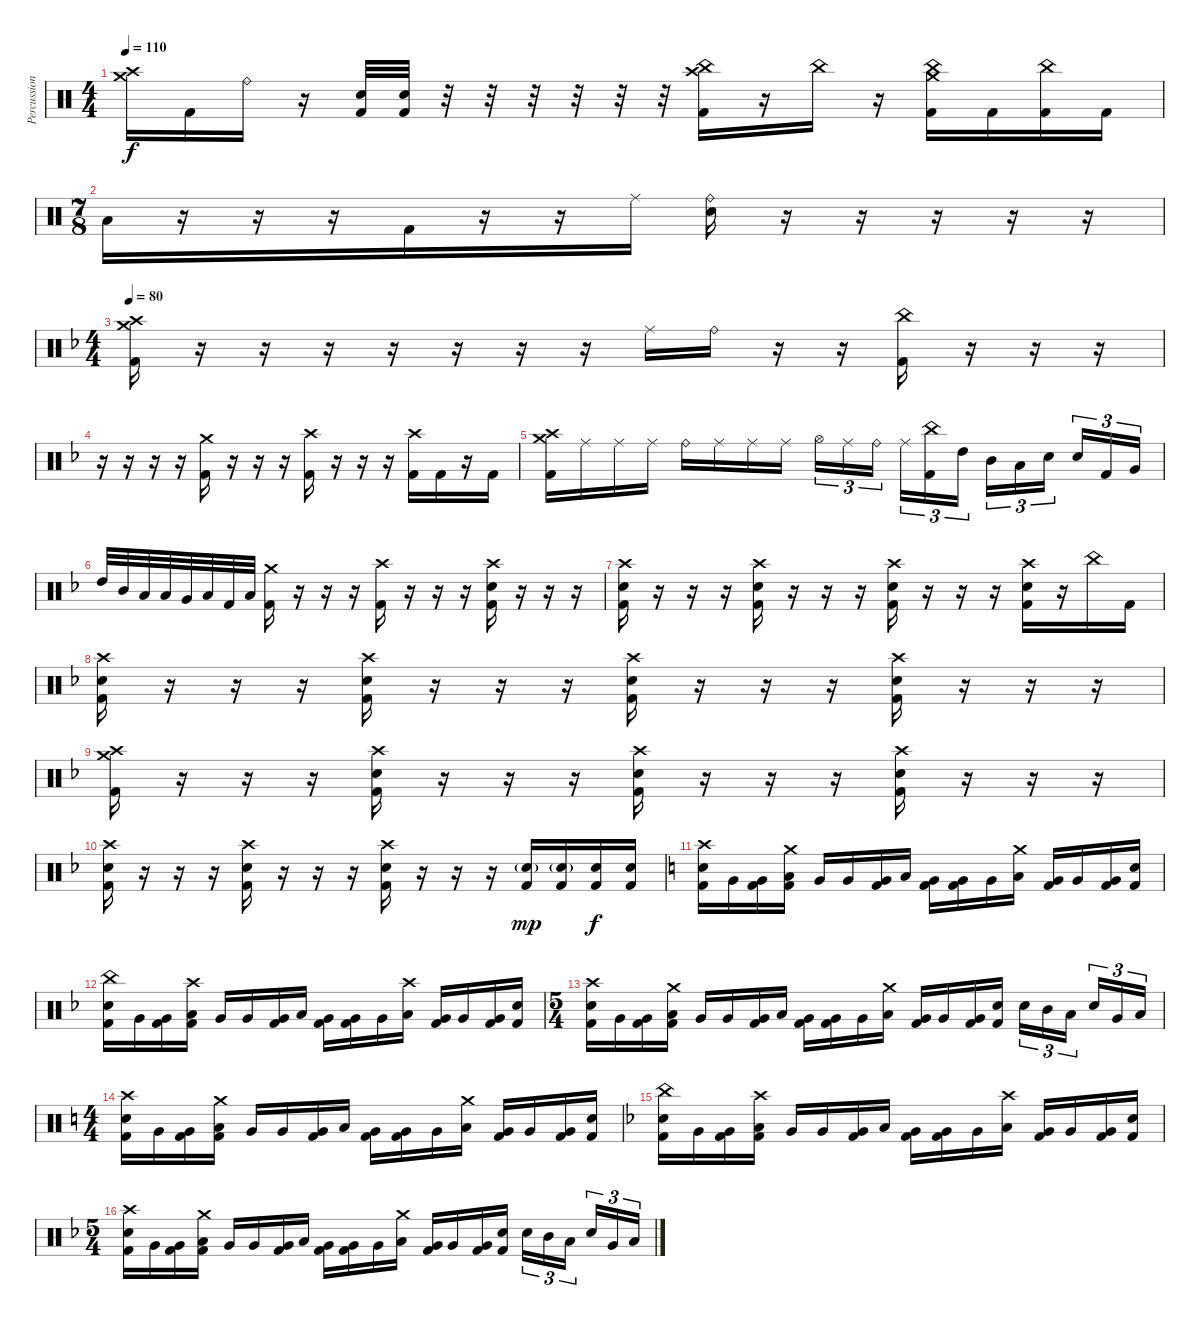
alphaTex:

\track ("Percussion" "Percussion") {instrument percussion}
\staff {score}
\articulation defaults
\ts (4 4)
\tempo 110
\clef neutral
\ks c
("Crash medium (hit)" "Crash high (hit)").16{dy f} "Kick (hit) 2".16 "Ride (bell)".16 r.16 ("Kick (hit) 2" "Electric Snare (hit)").32 ("Kick (hit) 2" "Electric Snare (hit)").32 r.32 r.32 r.32 r.32 r.32 r.32 ("Kick (hit) 2" "China (hit)" "Crash high (hit)").16 r.16 "China (hit)".16 r.16 ("Kick (hit) 2" "China (hit)" "Crash medium (hit)").16 "Kick (hit) 2".16 ("Kick (hit) 2" "China (hit)").16 "Kick (hit) 2".16 |
\ts (7 8)
"Low Tom (hit)".16 r.16 r.16 r.16 "Kick (hit) 2".16 r.16 r.16 "Ride (middle)".16 ("Electric Snare (hit)" "Ride (bell)").16 r.16 r.16 r.16 r.16 r.16 |
\ts (4 4)
\tempo 80
\ks dminor
("Kick (hit) 2" "Crash medium (hit)" "Crash high (hit)").16 r.16 r.16 r.16 r.16 r.16 r.16 r.16 "Ride (middle)".16 "Ride (bell)".16 r.16 r.16 ("Kick (hit) 2" "China (hit)").16 r.16 r.16 r.16 |
r.16 r.16 r.16 r.16 ("Kick (hit) 2" "Crash medium (hit)").16 r.16 r.16 r.16 ("Kick (hit) 2" "Crash high (hit)").16 r.16 r.16 r.16 ("Kick (hit) 2" "Crash high (hit)").16 "Kick (hit) 2".16 r.16 "Kick (hit) 2".16 |
("Kick (hit) 2" "Crash medium (hit)" "Crash high (hit)").16 "Ride (middle)".16 "Ride (middle)".16 "Ride (middle)".16 "Ride (bell)".16 "Ride (middle)".16 "Ride (middle)".16 "Ride (middle)".16 "Hi-Hat (open)".16{tu (3 2)} "Ride (middle)".16{tu (3 2)} "Ride (bell)".16{tu (3 2)} "Ride (middle)".16{tu (3 2)} ("Kick (hit) 2" "China (hit)").16{tu (3 2)} "High Tom (hit)".16{tu (3 2)} "Mid Tom (hit)".16{tu (3 2)} "Low Tom (hit)".16{tu (3 2)} "Electric Snare (hit)".16{tu (3 2)} "Electric Snare (hit)".16{tu (3 2)} "Kick (hit) 2".16{tu (3 2)} "Very Low Tom (hit)".16{tu (3 2)} |
"High Tom (hit)".32 "Mid Tom (hit)".32 "Low Tom (hit)".32 "Low Floor Tom (hit)".32 "Very Low Tom (hit)".32 "Low Floor Tom (hit)".32 "Kick (hit) 2".32 "Low Floor Tom (hit)".32 ("Kick (hit) 2" "Crash medium (hit)").16 r.16 r.16 r.16 ("Kick (hit) 2" "Crash high (hit)").16 r.16 r.16 r.16 ("Kick (hit) 2" "Electric Snare (hit)" "Crash high (hit)").16 r.16 r.16 r.16 |
("Kick (hit) 2" "Electric Snare (hit)" "Crash high (hit)").16 r.16 r.16 r.16 ("Kick (hit) 2" "Electric Snare (hit)" "Crash high (hit)").16 r.16 r.16 r.16 ("Kick (hit) 2" "Electric Snare (hit)" "Crash high (hit)").16 r.16 r.16 r.16 ("Kick (hit) 2" "Electric Snare (hit)" "Crash high (hit)").16 r.16 "China (hit)".16 "Kick (hit) 2".16 |
("Kick (hit) 2" "Electric Snare (hit)" "Crash high (hit)").16 r.16 r.16 r.16 ("Kick (hit) 2" "Electric Snare (hit)" "Crash high (hit)").16 r.16 r.16 r.16 ("Kick (hit) 2" "Electric Snare (hit)" "Crash high (hit)").16 r.16 r.16 r.16 ("Kick (hit) 2" "Electric Snare (hit)" "Crash high (hit)").16 r.16 r.16 r.16 |
("Kick (hit) 2" "Crash medium (hit)" "Crash high (hit)").16 r.16 r.16 r.16 ("Kick (hit) 2" "Electric Snare (hit)" "Crash high (hit)").16 r.16 r.16 r.16 ("Kick (hit) 2" "Electric Snare (hit)" "Crash high (hit)").16 r.16 r.16 r.16 ("Kick (hit) 2" "Electric Snare (hit)" "Crash high (hit)").16 r.16 r.16 r.16 |
("Kick (hit) 2" "Electric Snare (hit)" "Crash high (hit)").16 r.16 r.16 r.16 ("Kick (hit) 2" "Electric Snare (hit)" "Crash high (hit)").16 r.16 r.16 r.16 ("Kick (hit) 2" "Electric Snare (hit)" "Crash high (hit)").16 r.16 r.16 r.16 ("Kick (hit) 2" "Electric Snare (hit)"{g}).16{dy mp} ("Kick (hit) 2" "Electric Snare (hit)"{g}).16 ("Kick (hit) 2" "Electric Snare (hit)").16{dy f} ("Kick (hit) 2" "Electric Snare (hit)").16 |
\ks c
("Kick (hit) 2" "Electric Snare (hit)" "Crash high (hit)").16 "Very Low Tom (hit)".16 ("Kick (hit) 2" "Very Low Tom (hit)").16 ("Kick (hit) 2" "Low Floor Tom (hit)" "Crash medium (hit)").16 "Very Low Tom (hit)".16 "Very Low Tom (hit)".16 ("Kick (hit) 2" "Very Low Tom (hit)").16 "Low Floor Tom (hit)".16 ("Kick (hit) 2" "Very Low Tom (hit)").16 ("Kick (hit) 2" "Very Low Tom (hit)").16 "Very Low Tom (hit)".16 ("Low Floor Tom (hit)" "Crash medium (hit)").16 ("Kick (hit) 2" "Very Low Tom (hit)").16 "Very Low Tom (hit)".16 ("Kick (hit) 2" "Very Low Tom (hit)").16 ("Kick (hit) 2" "Electric Snare (hit)").16 |
\ks dminor
("Kick (hit) 2" "Electric Snare (hit)" "China (hit)").16 "Very Low Tom (hit)".16 ("Kick (hit) 2" "Very Low Tom (hit)").16 ("Kick (hit) 2" "Low Floor Tom (hit)" "Crash high (hit)").16 "Very Low Tom (hit)".16 "Very Low Tom (hit)".16 ("Kick (hit) 2" "Very Low Tom (hit)").16 "Low Floor Tom (hit)".16 ("Kick (hit) 2" "Very Low Tom (hit)").16 ("Kick (hit) 2" "Very Low Tom (hit)").16 "Very Low Tom (hit)".16 ("Low Floor Tom (hit)" "Crash high (hit)").16 ("Kick (hit) 2" "Very Low Tom (hit)").16 "Very Low Tom (hit)".16 ("Kick (hit) 2" "Very Low Tom (hit)").16 ("Kick (hit) 2" "Electric Snare (hit)").16 |
\ts (5 4)
("Kick (hit) 2" "Electric Snare (hit)" "Crash high (hit)").16 "Very Low Tom (hit)".16 ("Kick (hit) 2" "Very Low Tom (hit)").16 ("Kick (hit) 2" "Low Floor Tom (hit)" "Crash medium (hit)").16 "Very Low Tom (hit)".16 "Very Low Tom (hit)".16 ("Kick (hit) 2" "Very Low Tom (hit)").16 "Low Floor Tom (hit)".16 ("Kick (hit) 2" "Very Low Tom (hit)").16 ("Kick (hit) 2" "Very Low Tom (hit)").16 "Very Low Tom (hit)".16 ("Low Floor Tom (hit)" "Crash medium (hit)").16 ("Kick (hit) 2" "Very Low Tom (hit)").16 "Very Low Tom (hit)".16 ("Kick (hit) 2" "Very Low Tom (hit)").16 ("Kick (hit) 2" "Electric Snare (hit)").16 "Electric Snare (hit)".16{tu (3 2)} "Mid Tom (hit)".16{tu (3 2)} "Low Tom (hit)".16{tu (3 2)} "Electric Snare (hit)".16{tu (3 2)} "Very Low Tom (hit)".16{tu (3 2)} "Low Floor Tom (hit)".16{tu (3 2)} |
\ts (4 4)
\ks c
("Kick (hit) 2" "Electric Snare (hit)" "Crash high (hit)").16 "Very Low Tom (hit)".16 ("Kick (hit) 2" "Very Low Tom (hit)").16 ("Kick (hit) 2" "Low Floor Tom (hit)" "Crash medium (hit)").16 "Very Low Tom (hit)".16 "Very Low Tom (hit)".16 ("Kick (hit) 2" "Very Low Tom (hit)").16 "Low Floor Tom (hit)".16 ("Kick (hit) 2" "Very Low Tom (hit)").16 ("Kick (hit) 2" "Very Low Tom (hit)").16 "Very Low Tom (hit)".16 ("Low Floor Tom (hit)" "Crash medium (hit)").16 ("Kick (hit) 2" "Very Low Tom (hit)").16 "Very Low Tom (hit)".16 ("Kick (hit) 2" "Very Low Tom (hit)").16 ("Kick (hit) 2" "Electric Snare (hit)").16 |
\ks dminor
("Kick (hit) 2" "Electric Snare (hit)" "China (hit)").16 "Very Low Tom (hit)".16 ("Kick (hit) 2" "Very Low Tom (hit)").16 ("Kick (hit) 2" "Low Floor Tom (hit)" "Crash high (hit)").16 "Very Low Tom (hit)".16 "Very Low Tom (hit)".16 ("Kick (hit) 2" "Very Low Tom (hit)").16 "Low Floor Tom (hit)".16 ("Kick (hit) 2" "Very Low Tom (hit)").16 ("Kick (hit) 2" "Very Low Tom (hit)").16 "Very Low Tom (hit)".16 ("Low Floor Tom (hit)" "Crash high (hit)").16 ("Kick (hit) 2" "Very Low Tom (hit)").16 "Very Low Tom (hit)".16 ("Kick (hit) 2" "Very Low Tom (hit)").16 ("Kick (hit) 2" "Electric Snare (hit)").16 |
\ts (5 4)
("Kick (hit) 2" "Electric Snare (hit)" "Crash high (hit)").16 "Very Low Tom (hit)".16 ("Kick (hit) 2" "Very Low Tom (hit)").16 ("Kick (hit) 2" "Low Floor Tom (hit)" "Crash medium (hit)").16 "Very Low Tom (hit)".16 "Very Low Tom (hit)".16 ("Kick (hit) 2" "Very Low Tom (hit)").16 "Low Floor Tom (hit)".16 ("Kick (hit) 2" "Very Low Tom (hit)").16 ("Kick (hit) 2" "Very Low Tom (hit)").16 "Very Low Tom (hit)".16 ("Low Floor Tom (hit)" "Crash medium (hit)").16 ("Kick (hit) 2" "Very Low Tom (hit)").16 "Very Low Tom (hit)".16 ("Kick (hit) 2" "Very Low Tom (hit)").16 ("Kick (hit) 2" "Electric Snare (hit)").16 "Electric Snare (hit)".16{tu (3 2)} "Mid Tom (hit)".16{tu (3 2)} "Low Tom (hit)".16{tu (3 2)} "Electric Snare (hit)".16{tu (3 2)} "Very Low Tom (hit)".16{tu (3 2)} "Low Floor Tom (hit)".16{tu (3 2)}
